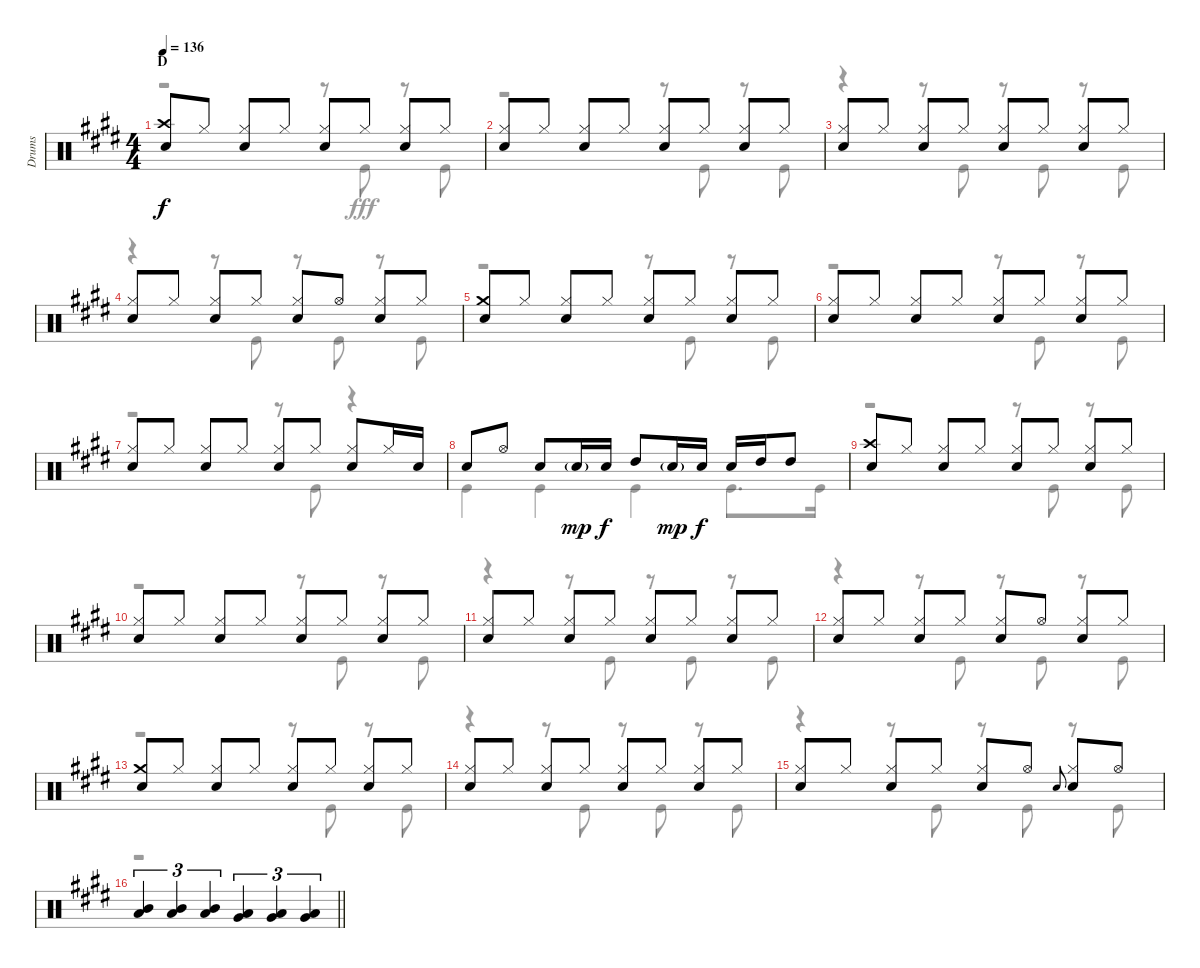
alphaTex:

\track ("Drums" "Drums") {instrument percussion}
\staff {score}
\articulation defaults
\voice
\ts (4 4)
\section ("" "D")
\tempo 136
\clef neutral
\ks e
("Crash high (hit)" "Snare (hit) 2").8{dy f} "Hi-Hat (closed)".8 ("Hi-Hat (closed)" "Snare (hit) 2").8 "Hi-Hat (closed)".8 ("Hi-Hat (closed)" "Snare (hit) 2").8 "Hi-Hat (closed)".8 ("Hi-Hat (closed)" "Snare (hit) 2").8 "Hi-Hat (closed)".8 |
("Hi-Hat (closed)" "Snare (hit) 2").8 "Hi-Hat (closed)".8 ("Hi-Hat (closed)" "Snare (hit) 2").8 "Hi-Hat (closed)".8 ("Hi-Hat (closed)" "Snare (hit) 2").8 "Hi-Hat (closed)".8 ("Hi-Hat (closed)" "Snare (hit) 2").8 "Hi-Hat (closed)".8 |
("Hi-Hat (closed)" "Snare (hit) 2").8 "Hi-Hat (closed)".8 ("Hi-Hat (closed)" "Snare (hit) 2").8 "Hi-Hat (closed)".8 ("Hi-Hat (closed)" "Snare (hit) 2").8 "Hi-Hat (closed)".8 ("Hi-Hat (closed)" "Snare (hit) 2").8 "Hi-Hat (closed)".8 |
("Hi-Hat (closed)" "Snare (hit) 2").8 "Hi-Hat (closed)".8 ("Hi-Hat (closed)" "Snare (hit) 2").8 "Hi-Hat (closed)".8 ("Hi-Hat (closed)" "Snare (hit) 2").8 "Hi-Hat (open)".8 ("Hi-Hat (closed)" "Snare (hit) 2").8 "Hi-Hat (closed)".8 |
("Crash medium (hit)" "Snare (hit) 2").8 "Hi-Hat (closed)".8 ("Hi-Hat (closed)" "Snare (hit) 2").8 "Hi-Hat (closed)".8 ("Hi-Hat (closed)" "Snare (hit) 2").8 "Hi-Hat (closed)".8 ("Hi-Hat (closed)" "Snare (hit) 2").8 "Hi-Hat (closed)".8 |
("Hi-Hat (closed)" "Snare (hit) 2").8 "Hi-Hat (closed)".8 ("Hi-Hat (closed)" "Snare (hit) 2").8 "Hi-Hat (closed)".8 ("Hi-Hat (closed)" "Snare (hit) 2").8 "Hi-Hat (closed)".8 ("Hi-Hat (closed)" "Snare (hit) 2").8 "Hi-Hat (closed)".8 |
("Hi-Hat (closed)" "Snare (hit) 2").8 "Hi-Hat (closed)".8 ("Hi-Hat (closed)" "Snare (hit) 2").8 "Hi-Hat (closed)".8 ("Hi-Hat (closed)" "Snare (hit) 2").8 "Hi-Hat (closed)".8 ("Hi-Hat (closed)" "Snare (hit) 2").8 "Hi-Hat (closed)".16 "Snare (hit) 2".16 |
"Snare (hit) 2".8 "Hi-Hat (open)".8 "Snare (hit) 2".8 "Snare (hit) 2"{g}.16{dy mp} "Snare (hit) 2".16{dy f} "High Tom (hit)".8 "Snare (hit) 2"{g}.16{dy mp} "Snare (hit) 2".16{dy f} "Snare (hit) 2".16 "High Tom (hit)".16 "High Tom (hit)".8 |
("Crash high (hit)" "Snare (hit) 2").8 "Hi-Hat (closed)".8 ("Hi-Hat (closed)" "Snare (hit) 2").8 "Hi-Hat (closed)".8 ("Hi-Hat (closed)" "Snare (hit) 2").8 "Hi-Hat (closed)".8 ("Hi-Hat (closed)" "Snare (hit) 2").8 "Hi-Hat (closed)".8 |
("Hi-Hat (closed)" "Snare (hit) 2").8 "Hi-Hat (closed)".8 ("Hi-Hat (closed)" "Snare (hit) 2").8 "Hi-Hat (closed)".8 ("Hi-Hat (closed)" "Snare (hit) 2").8 "Hi-Hat (closed)".8 ("Hi-Hat (closed)" "Snare (hit) 2").8 "Hi-Hat (closed)".8 |
("Hi-Hat (closed)" "Snare (hit) 2").8 "Hi-Hat (closed)".8 ("Hi-Hat (closed)" "Snare (hit) 2").8 "Hi-Hat (closed)".8 ("Hi-Hat (closed)" "Snare (hit) 2").8 "Hi-Hat (closed)".8 ("Hi-Hat (closed)" "Snare (hit) 2").8 "Hi-Hat (closed)".8 |
("Hi-Hat (closed)" "Snare (hit) 2").8 "Hi-Hat (closed)".8 ("Hi-Hat (closed)" "Snare (hit) 2").8 "Hi-Hat (closed)".8 ("Hi-Hat (closed)" "Snare (hit) 2").8 "Hi-Hat (open)".8 ("Hi-Hat (closed)" "Snare (hit) 2").8 "Hi-Hat (closed)".8 |
("Crash medium (hit)" "Snare (hit) 2").8 "Hi-Hat (closed)".8 ("Hi-Hat (closed)" "Snare (hit) 2").8 "Hi-Hat (closed)".8 ("Hi-Hat (closed)" "Snare (hit) 2").8 "Hi-Hat (closed)".8 ("Hi-Hat (closed)" "Snare (hit) 2").8 "Hi-Hat (closed)".8 |
("Hi-Hat (closed)" "Snare (hit) 2").8 "Hi-Hat (closed)".8 ("Hi-Hat (closed)" "Snare (hit) 2").8 "Hi-Hat (closed)".8 ("Hi-Hat (closed)" "Snare (hit) 2").8 "Hi-Hat (closed)".8 ("Hi-Hat (closed)" "Snare (hit) 2").8 "Hi-Hat (closed)".8 |
("Hi-Hat (closed)" "Snare (hit) 2").8 "Hi-Hat (closed)".8 ("Hi-Hat (closed)" "Snare (hit) 2").8 "Hi-Hat (closed)".8 ("Hi-Hat (closed)" "Snare (hit) 2").8 "Hi-Hat (open)".8 "Snare (hit) 2".8{gr onbeat} ("Hi-Hat (closed)" "Snare (hit) 2").8 "Hi-Hat (open)".8 |
\barLineRight lightlight
("Mid Tom (hit)" "Low Tom (hit)").4{tu (3 2)} ("Mid Tom (hit)" "Low Tom (hit)").4{tu (3 2)} ("Mid Tom (hit)" "Low Tom (hit)").4{tu (3 2)} ("Low Tom (hit)" "Very Low Tom (hit)").4{tu (3 2)} ("Low Tom (hit)" "Very Low Tom (hit)").4{tu (3 2)} ("Low Tom (hit)" "Very Low Tom (hit)").4{tu (3 2)}
\voice
\clef neutral
\ottava regular
\simile none
\ks e
r.2{dy fff} r.8 "Kick (hit)".8 r.8 "Kick (hit)".8 |
r.2 r.8 "Kick (hit)".8 r.8 "Kick (hit)".8 |
r.4 r.8 "Kick (hit)".8 r.8 "Kick (hit)".8 r.8 "Kick (hit)".8 |
r.4 r.8 "Kick (hit)".8 r.8 "Kick (hit)".8 r.8 "Kick (hit)".8 |
r.2 r.8 "Kick (hit)".8 r.8 "Kick (hit)".8 |
r.2 r.8 "Kick (hit)".8 r.8 "Kick (hit)".8 |
r.2 r.8 "Kick (hit)".8 r.4 |
"Kick (hit)".4 "Kick (hit)".4 "Kick (hit)".4 "Kick (hit)".8{d} "Kick (hit)".16 |
r.2 r.8 "Kick (hit)".8 r.8 "Kick (hit)".8 |
r.2 r.8 "Kick (hit)".8 r.8 "Kick (hit)".8 |
r.4 r.8 "Kick (hit)".8 r.8 "Kick (hit)".8 r.8 "Kick (hit)".8 |
r.4 r.8 "Kick (hit)".8 r.8 "Kick (hit)".8 r.8 "Kick (hit)".8 |
r.2 r.8 "Kick (hit)".8 r.8 "Kick (hit)".8 |
r.4 r.8 "Kick (hit)".8 r.8 "Kick (hit)".8 r.8 "Kick (hit)".8 |
r.4 r.8 "Kick (hit)".8 r.8 "Kick (hit)".8 r.8 "Kick (hit)".8 |
\barLineRight lightlight
r.1
